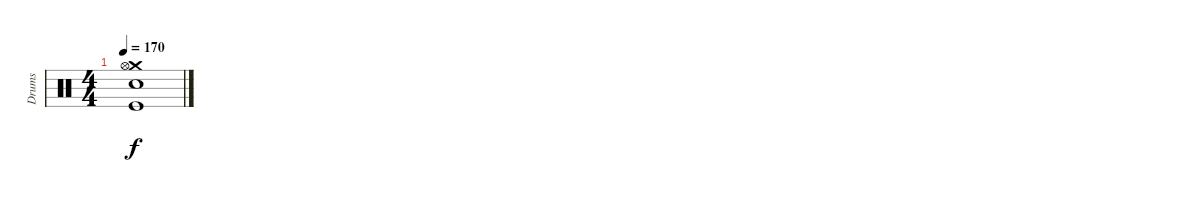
\track ("Drums" "Drums") {instrument percussion}
\staff {score}
\articulation defaults
\ts (4 4)
\tempo 170
\clef neutral
\ks c
("Crash medium (hit)" "Hi-Hat (open)" "Electric Snare (hit)" "Kick (hit)").1{dy f}
